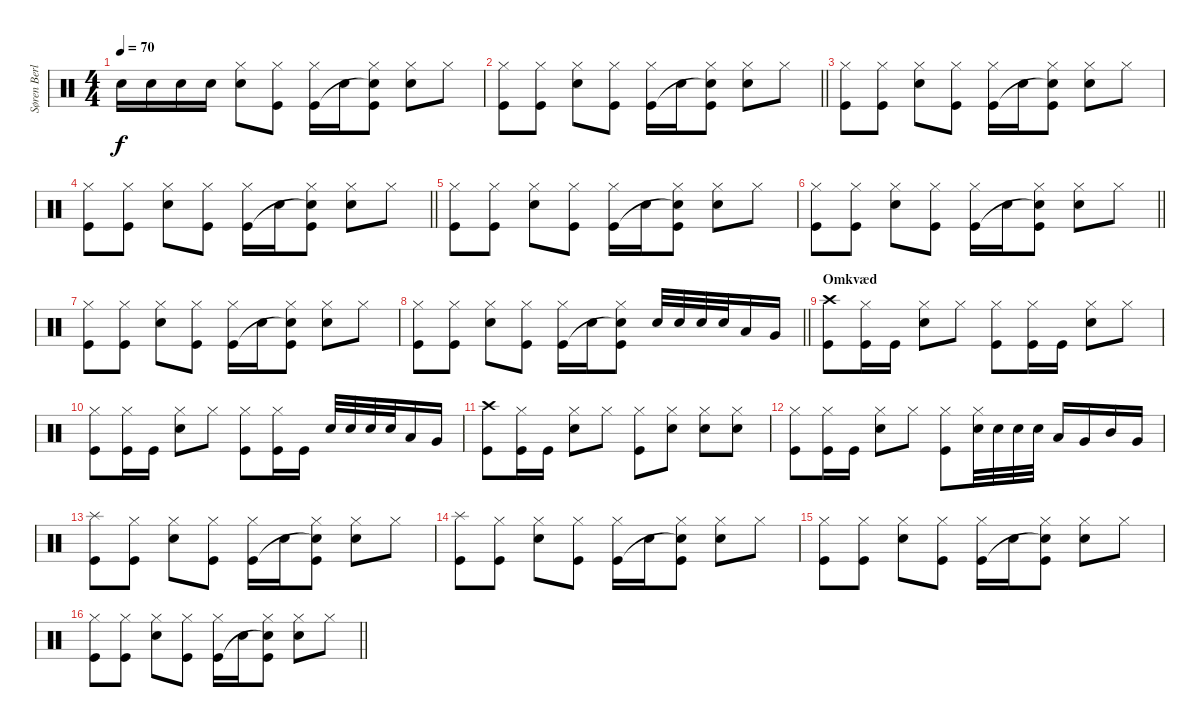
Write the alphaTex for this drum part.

\track ("Søren Berlev" "Søren Berl") {instrument percussion}
\staff {score}
\articulation defaults
\ts (4 4)
\tempo 70
\clef neutral
\ks c "Snare (hit) 2".16{dy f} "Snare (hit) 2".16 "Snare (hit) 2".16 "Snare (hit) 2".16
("Hi-Hat (closed)" "Snare (hit) 2").8 ("Hi-Hat (closed)" "Kick (hit)").8 ("Hi-Hat (closed)" "Kick (hit)").16 "Snare (hit) 2".16 ("Hi-Hat (closed)" "Snare (hit)"{t} "Kick (hit)").8 ("Hi-Hat (closed)" "Snare (hit) 2").8 "Hi-Hat (closed)".8 |
\barLineRight lightlight
("Hi-Hat (closed)" "Kick (hit)").8 ("Hi-Hat (closed)" "Kick (hit)").8 ("Hi-Hat (closed)" "Snare (hit) 2").8 ("Hi-Hat (closed)" "Kick (hit)").8 ("Hi-Hat (closed)" "Kick (hit)").16 "Snare (hit) 2".16 ("Hi-Hat (closed)" "Snare (hit)"{t} "Kick (hit)").8 ("Hi-Hat (closed)" "Snare (hit) 2").8 "Hi-Hat (closed)".8 |
("Hi-Hat (closed)" "Kick (hit)").8 ("Hi-Hat (closed)" "Kick (hit)").8 ("Hi-Hat (closed)" "Snare (hit) 2").8 ("Hi-Hat (closed)" "Kick (hit)").8 ("Hi-Hat (closed)" "Kick (hit)").16 "Snare (hit) 2".16 ("Hi-Hat (closed)" "Snare (hit)"{t} "Kick (hit)").8 ("Hi-Hat (closed)" "Snare (hit) 2").8 "Hi-Hat (closed)".8 |
\barLineRight lightlight
("Hi-Hat (closed)" "Kick (hit)").8 ("Hi-Hat (closed)" "Kick (hit)").8 ("Hi-Hat (closed)" "Snare (hit) 2").8 ("Hi-Hat (closed)" "Kick (hit)").8 ("Hi-Hat (closed)" "Kick (hit)").16 "Snare (hit) 2".16 ("Hi-Hat (closed)" "Snare (hit)"{t} "Kick (hit)").8 ("Hi-Hat (closed)" "Snare (hit) 2").8 "Hi-Hat (closed)".8 |
("Hi-Hat (closed)" "Kick (hit)").8 ("Hi-Hat (closed)" "Kick (hit)").8 ("Hi-Hat (closed)" "Snare (hit) 2").8 ("Hi-Hat (closed)" "Kick (hit)").8 ("Hi-Hat (closed)" "Kick (hit)").16 "Snare (hit) 2".16 ("Hi-Hat (closed)" "Snare (hit)"{t} "Kick (hit)").8 ("Hi-Hat (closed)" "Snare (hit) 2").8 "Hi-Hat (closed)".8 |
\barLineRight lightlight
("Hi-Hat (closed)" "Kick (hit)").8 ("Hi-Hat (closed)" "Kick (hit)").8 ("Hi-Hat (closed)" "Snare (hit) 2").8 ("Hi-Hat (closed)" "Kick (hit)").8 ("Hi-Hat (closed)" "Kick (hit)").16 "Snare (hit) 2".16 ("Hi-Hat (closed)" "Snare (hit)"{t} "Kick (hit)").8 ("Hi-Hat (closed)" "Snare (hit) 2").8 "Hi-Hat (closed)".8 |
("Hi-Hat (closed)" "Kick (hit)").8 ("Hi-Hat (closed)" "Kick (hit)").8 ("Hi-Hat (closed)" "Snare (hit) 2").8 ("Hi-Hat (closed)" "Kick (hit)").8 ("Hi-Hat (closed)" "Kick (hit)").16 "Snare (hit) 2".16 ("Hi-Hat (closed)" "Snare (hit)"{t} "Kick (hit)").8 ("Hi-Hat (closed)" "Snare (hit) 2").8 "Hi-Hat (closed)".8 |
\barLineRight lightlight
("Hi-Hat (closed)" "Kick (hit)").8 ("Hi-Hat (closed)" "Kick (hit)").8 ("Hi-Hat (closed)" "Snare (hit) 2").8 ("Hi-Hat (closed)" "Kick (hit)").8 ("Hi-Hat (closed)" "Kick (hit)").16 "Snare (hit) 2".16 ("Hi-Hat (closed)" "Snare (hit)"{t} "Kick (hit)").8 "Snare (hit) 2".32 "Snare (hit) 2".32 "Snare (hit) 2".32 "Snare (hit) 2".32 "Low Tom (hit)".16 "Very Low Tom (hit)".16 |
\section ("" "Omkvæd")
("Crash high (hit)" "Kick (hit)").8 ("Hi-Hat (closed)" "Kick (hit)").16 "Kick (hit)".16 ("Hi-Hat (closed)" "Snare (hit) 2").8 "Hi-Hat (closed)".8 ("Hi-Hat (closed)" "Kick (hit)").8 ("Hi-Hat (closed)" "Kick (hit)").16 "Kick (hit)".16 ("Hi-Hat (closed)" "Snare (hit) 2").8 "Hi-Hat (closed)".8 |
("Hi-Hat (closed)" "Kick (hit)").8 ("Hi-Hat (closed)" "Kick (hit)").16 "Kick (hit)".16 ("Hi-Hat (closed)" "Snare (hit) 2").8 "Hi-Hat (closed)".8 ("Hi-Hat (closed)" "Kick (hit)").8 ("Hi-Hat (closed)" "Kick (hit)").16 "Kick (hit)".16 "Snare (hit) 2".32 "Snare (hit) 2".32 "Snare (hit) 2".32 "Snare (hit) 2".32 "Low Tom (hit)".16 "Very Low Tom (hit)".16 |
("Crash high (hit)" "Kick (hit)").8 ("Hi-Hat (closed)" "Kick (hit)").16 "Kick (hit)".16 ("Hi-Hat (closed)" "Snare (hit) 2").8 "Hi-Hat (closed)".8 ("Hi-Hat (closed)" "Kick (hit)").8 ("Hi-Hat (closed)" "Snare (hit) 2").8 ("Hi-Hat (closed)" "Snare (hit) 2").8 ("Hi-Hat (closed)" "Snare (hit) 2").8 |
("Hi-Hat (closed)" "Kick (hit)").8 ("Hi-Hat (closed)" "Kick (hit)").16 "Kick (hit)".16 ("Hi-Hat (closed)" "Snare (hit) 2").8 "Hi-Hat (closed)".8 ("Hi-Hat (closed)" "Kick (hit)").8 ("Hi-Hat (closed)" "Snare (hit) 2").32 "Snare (hit) 2".32 "Snare (hit) 2".32 "Snare (hit) 2".32 "Low Tom (hit)".16 "Very Low Tom (hit)".16 "Mid Tom (hit)".16 "Very Low Tom (hit)".16 |
("Splash (hit)" "Kick (hit)").8 ("Hi-Hat (closed)" "Kick (hit)").8 ("Hi-Hat (closed)" "Snare (hit) 2").8 ("Hi-Hat (closed)" "Kick (hit)").8 ("Hi-Hat (closed)" "Kick (hit)").16 "Snare (hit) 2".16 ("Hi-Hat (closed)" "Snare (hit)"{t} "Kick (hit)").8 ("Hi-Hat (closed)" "Snare (hit) 2").8 "Hi-Hat (closed)".8 |
("Splash (hit)" "Kick (hit)").8 ("Hi-Hat (closed)" "Kick (hit)").8 ("Hi-Hat (closed)" "Snare (hit) 2").8 ("Hi-Hat (closed)" "Kick (hit)").8 ("Hi-Hat (closed)" "Kick (hit)").16 "Snare (hit) 2".16 ("Hi-Hat (closed)" "Snare (hit)"{t} "Kick (hit)").8 ("Hi-Hat (closed)" "Snare (hit) 2").8 "Hi-Hat (closed)".8 |
("Hi-Hat (closed)" "Kick (hit)").8 ("Hi-Hat (closed)" "Kick (hit)").8 ("Hi-Hat (closed)" "Snare (hit) 2").8 ("Hi-Hat (closed)" "Kick (hit)").8 ("Hi-Hat (closed)" "Kick (hit)").16 "Snare (hit) 2".16 ("Hi-Hat (closed)" "Snare (hit)"{t} "Kick (hit)").8 ("Hi-Hat (closed)" "Snare (hit) 2").8 "Hi-Hat (closed)".8 |
\barLineRight lightlight
("Hi-Hat (closed)" "Kick (hit)").8 ("Hi-Hat (closed)" "Kick (hit)").8 ("Hi-Hat (closed)" "Snare (hit) 2").8 ("Hi-Hat (closed)" "Kick (hit)").8 ("Hi-Hat (closed)" "Kick (hit)").16 "Snare (hit) 2".16 ("Hi-Hat (closed)" "Snare (hit)"{t} "Kick (hit)").8 ("Hi-Hat (closed)" "Snare (hit) 2").8 "Hi-Hat (closed)".8
